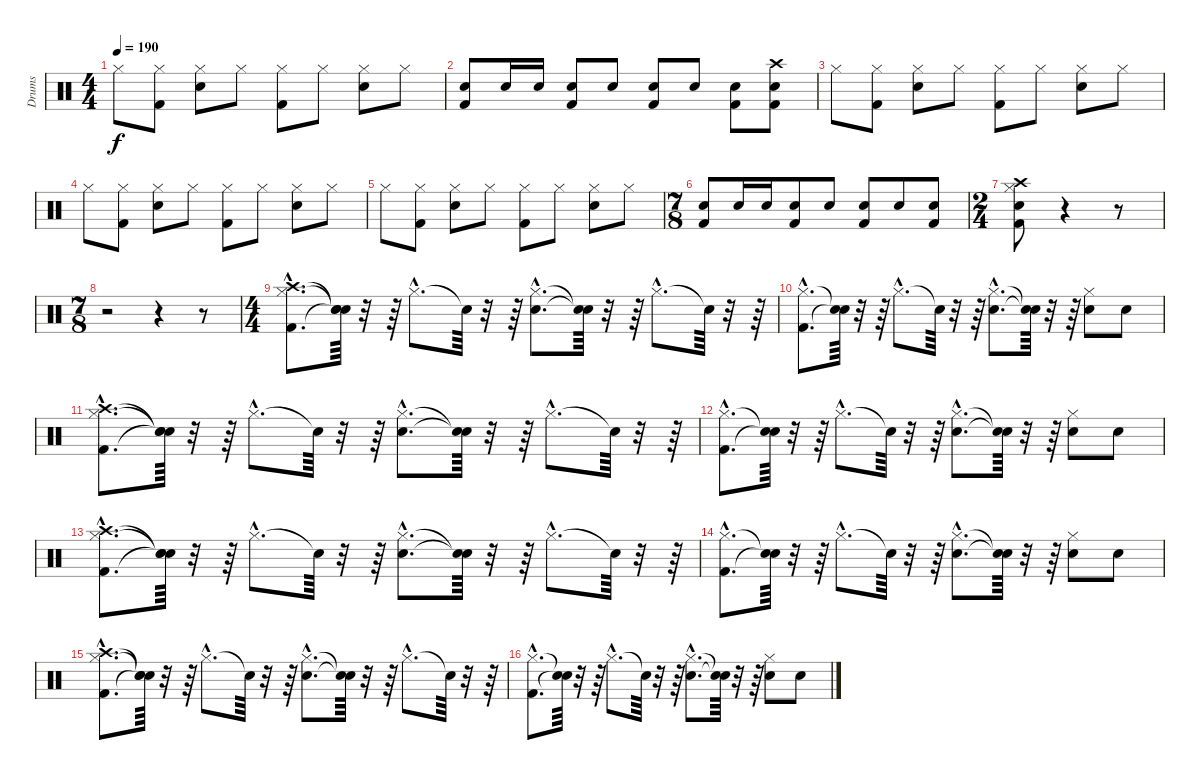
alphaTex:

\track ("Drums" "Drums") {instrument percussion}
\staff {score}
\articulation defaults
\ts (4 4)
\tempo 190
\clef neutral
\ks c "Hi-Hat (closed)".8{dy f}
("Kick (hit) 2" "Hi-Hat (closed)").8 ("Snare (hit) 2" "Hi-Hat (closed)").8 "Hi-Hat (closed)".8 ("Kick (hit) 2" "Hi-Hat (closed)").8 "Hi-Hat (closed)".8 ("Snare (hit) 2" "Hi-Hat (closed)").8 "Hi-Hat (closed)".8 |
("Kick (hit) 2" "Snare (hit) 2").8 "Snare (hit) 2".16 "Snare (hit) 2".16 ("Kick (hit) 2" "Snare (hit) 2").8 "Snare (hit) 2".8 ("Kick (hit) 2" "Snare (hit) 2").8 "Snare (hit) 2".8 ("Kick (hit) 2" "Snare (hit) 2").8 ("Kick (hit) 2" "Snare (hit) 2" "Crash high (hit)").8 |
"Hi-Hat (closed)".8 ("Kick (hit) 2" "Hi-Hat (closed)").8 ("Snare (hit) 2" "Hi-Hat (closed)").8 "Hi-Hat (closed)".8 ("Kick (hit) 2" "Hi-Hat (closed)").8 "Hi-Hat (closed)".8 ("Snare (hit) 2" "Hi-Hat (closed)").8 "Hi-Hat (closed)".8 |
"Hi-Hat (closed)".8 ("Kick (hit) 2" "Hi-Hat (closed)").8 ("Snare (hit) 2" "Hi-Hat (closed)").8 "Hi-Hat (closed)".8 ("Kick (hit) 2" "Hi-Hat (closed)").8 "Hi-Hat (closed)".8 ("Snare (hit) 2" "Hi-Hat (closed)").8 "Hi-Hat (closed)".8 |
"Hi-Hat (closed)".8 ("Kick (hit) 2" "Hi-Hat (closed)").8 ("Snare (hit) 2" "Hi-Hat (closed)").8 "Hi-Hat (closed)".8 ("Kick (hit) 2" "Hi-Hat (closed)").8 "Hi-Hat (closed)".8 ("Snare (hit) 2" "Hi-Hat (closed)").8 "Hi-Hat (closed)".8 |
\ts (7 8)
("Kick (hit) 2" "Snare (hit) 2").8 "Snare (hit) 2".16 "Snare (hit) 2".16 ("Kick (hit) 2" "Snare (hit) 2").8 "Snare (hit) 2".8 ("Kick (hit) 2" "Snare (hit) 2").8 "Snare (hit) 2".8 ("Kick (hit) 2" "Snare (hit) 2").8 |
\ts (2 4)
("Kick (hit) 2" "Snare (hit) 2" "Hi-Hat (closed)" "Crash high (hit)").8 r.4 r.8 |
\ts (7 8)
r.2 r.4 r.8 |
\ts (4 4)
("Kick (hit) 2"{hac} "Hi-Hat (closed)"{hac} "Crash high (hit)"{hac}).8{d} ("Snare (hit)"{t} "Snare (hit)"{t} "Snare (hit)"{t}).64 r.32 r.64 "Hi-Hat (closed)"{hac}.8{d} "Snare (hit)"{t}.64 r.32 r.64 ("Snare (hit) 2"{hac} "Hi-Hat (closed)"{hac}).8{d} ("Snare (hit)"{t} "Snare (hit)"{t}).64 r.32 r.64 "Hi-Hat (closed)"{hac}.8{d} "Snare (hit)"{t}.64 r.32 r.64 |
("Kick (hit) 2"{hac} "Hi-Hat (closed)"{hac}).8{d} ("Snare (hit)"{t} "Snare (hit)"{t}).64 r.32 r.64 "Hi-Hat (closed)"{hac}.8{d} "Snare (hit)"{t}.64 r.32 r.64 ("Snare (hit) 2"{hac} "Hi-Hat (closed)"{hac}).8{d} ("Snare (hit)"{t} "Snare (hit)"{t}).64 r.32 r.64 ("Snare (hit) 2" "Hi-Hat (closed)").8 "Snare (hit) 2".8 |
("Kick (hit) 2"{hac} "Hi-Hat (closed)"{hac} "Crash high (hit)"{hac}).8{d} ("Snare (hit)"{t} "Snare (hit)"{t} "Snare (hit)"{t}).64 r.32 r.64 "Hi-Hat (closed)"{hac}.8{d} "Snare (hit)"{t}.64 r.32 r.64 ("Snare (hit) 2"{hac} "Hi-Hat (closed)"{hac}).8{d} ("Snare (hit)"{t} "Snare (hit)"{t}).64 r.32 r.64 "Hi-Hat (closed)"{hac}.8{d} "Snare (hit)"{t}.64 r.32 r.64 |
("Kick (hit) 2"{hac} "Hi-Hat (closed)"{hac}).8{d} ("Snare (hit)"{t} "Snare (hit)"{t}).64 r.32 r.64 "Hi-Hat (closed)"{hac}.8{d} "Snare (hit)"{t}.64 r.32 r.64 ("Snare (hit) 2"{hac} "Hi-Hat (closed)"{hac}).8{d} ("Snare (hit)"{t} "Snare (hit)"{t}).64 r.32 r.64 ("Snare (hit) 2" "Hi-Hat (closed)").8 "Snare (hit) 2".8 |
("Kick (hit) 2"{hac} "Hi-Hat (closed)"{hac} "Crash high (hit)"{hac}).8{d} ("Snare (hit)"{t} "Snare (hit)"{t} "Snare (hit)"{t}).64 r.32 r.64 "Hi-Hat (closed)"{hac}.8{d} "Snare (hit)"{t}.64 r.32 r.64 ("Snare (hit) 2"{hac} "Hi-Hat (closed)"{hac}).8{d} ("Snare (hit)"{t} "Snare (hit)"{t}).64 r.32 r.64 "Hi-Hat (closed)"{hac}.8{d} "Snare (hit)"{t}.64 r.32 r.64 |
("Kick (hit) 2"{hac} "Hi-Hat (closed)"{hac}).8{d} ("Snare (hit)"{t} "Snare (hit)"{t}).64 r.32 r.64 "Hi-Hat (closed)"{hac}.8{d} "Snare (hit)"{t}.64 r.32 r.64 ("Snare (hit) 2"{hac} "Hi-Hat (closed)"{hac}).8{d} ("Snare (hit)"{t} "Snare (hit)"{t}).64 r.32 r.64 ("Snare (hit) 2" "Hi-Hat (closed)").8 "Snare (hit) 2".8 |
("Kick (hit) 2"{hac} "Hi-Hat (closed)"{hac} "Crash high (hit)"{hac}).8{d} ("Snare (hit)"{t} "Snare (hit)"{t} "Snare (hit)"{t}).64 r.32 r.64 "Hi-Hat (closed)"{hac}.8{d} "Snare (hit)"{t}.64 r.32 r.64 ("Snare (hit) 2"{hac} "Hi-Hat (closed)"{hac}).8{d} ("Snare (hit)"{t} "Snare (hit)"{t}).64 r.32 r.64 "Hi-Hat (closed)"{hac}.8{d} "Snare (hit)"{t}.64 r.32 r.64 |
("Kick (hit) 2"{hac} "Hi-Hat (closed)"{hac}).8{d} ("Snare (hit)"{t} "Snare (hit)"{t}).64 r.32 r.64 "Hi-Hat (closed)"{hac}.8{d} "Snare (hit)"{t}.64 r.32 r.64 ("Snare (hit) 2"{hac} "Hi-Hat (closed)"{hac}).8{d} ("Snare (hit)"{t} "Snare (hit)"{t}).64 r.32 r.64 ("Snare (hit) 2" "Hi-Hat (closed)").8 "Snare (hit) 2".8
